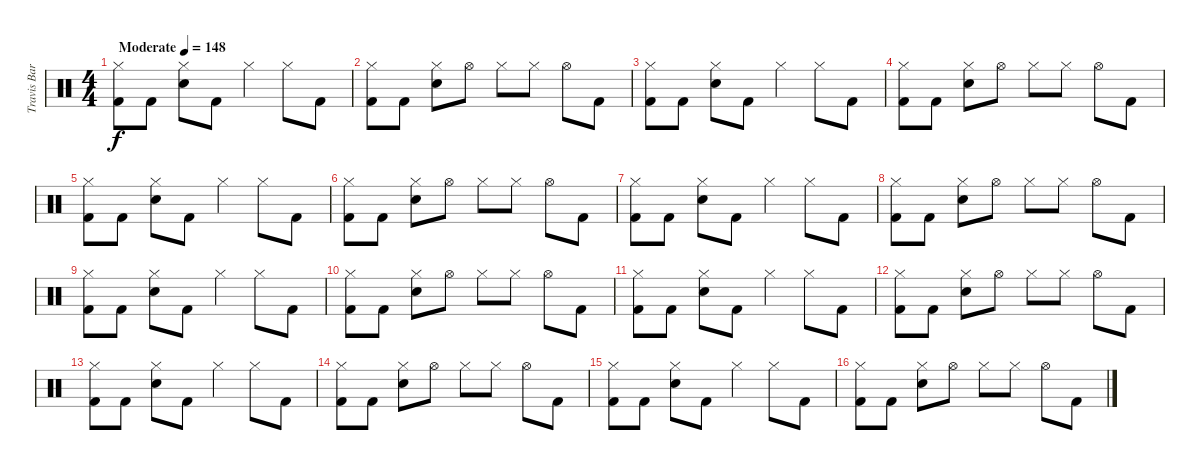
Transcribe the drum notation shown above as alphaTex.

\track ("Travis Barker - Drums" "Travis Bar") {instrument percussion}
\staff {score}
\articulation defaults
\ts (4 4)
\tempo (148 "Moderate")
\clef neutral
\ks c
("Hi-Hat (closed)" "Kick (hit) 2").8{dy f} "Kick (hit) 2".8 ("Hi-Hat (closed)" "Electric Snare (hit)").8 "Kick (hit) 2".8 "Hi-Hat (closed)".4 "Hi-Hat (closed)".8 "Kick (hit) 2".8 |
("Hi-Hat (closed)" "Kick (hit) 2").8 "Kick (hit) 2".8 ("Hi-Hat (closed)" "Electric Snare (hit)").8 "Hi-Hat (open)".8 "Hi-Hat (closed)".8 "Hi-Hat (closed)".8 "Hi-Hat (open)".8 "Kick (hit) 2".8 |
("Hi-Hat (closed)" "Kick (hit) 2").8 "Kick (hit) 2".8 ("Hi-Hat (closed)" "Electric Snare (hit)").8 "Kick (hit) 2".8 "Hi-Hat (closed)".4 "Hi-Hat (closed)".8 "Kick (hit) 2".8 |
("Hi-Hat (closed)" "Kick (hit) 2").8 "Kick (hit) 2".8 ("Hi-Hat (closed)" "Electric Snare (hit)").8 "Hi-Hat (open)".8 "Hi-Hat (closed)".8 "Hi-Hat (closed)".8 "Hi-Hat (open)".8 "Kick (hit) 2".8 |
("Hi-Hat (closed)" "Kick (hit) 2").8 "Kick (hit) 2".8 ("Hi-Hat (closed)" "Electric Snare (hit)").8 "Kick (hit) 2".8 "Hi-Hat (closed)".4 "Hi-Hat (closed)".8 "Kick (hit) 2".8 |
("Hi-Hat (closed)" "Kick (hit) 2").8 "Kick (hit) 2".8 ("Hi-Hat (closed)" "Electric Snare (hit)").8 "Hi-Hat (open)".8 "Hi-Hat (closed)".8 "Hi-Hat (closed)".8 "Hi-Hat (open)".8 "Kick (hit) 2".8 |
("Hi-Hat (closed)" "Kick (hit) 2").8 "Kick (hit) 2".8 ("Hi-Hat (closed)" "Electric Snare (hit)").8 "Kick (hit) 2".8 "Hi-Hat (closed)".4 "Hi-Hat (closed)".8 "Kick (hit) 2".8 |
("Hi-Hat (closed)" "Kick (hit) 2").8 "Kick (hit) 2".8 ("Hi-Hat (closed)" "Electric Snare (hit)").8 "Hi-Hat (open)".8 "Hi-Hat (closed)".8 "Hi-Hat (closed)".8 "Hi-Hat (open)".8 "Kick (hit) 2".8 |
("Hi-Hat (closed)" "Kick (hit) 2").8 "Kick (hit) 2".8 ("Hi-Hat (closed)" "Electric Snare (hit)").8 "Kick (hit) 2".8 "Hi-Hat (closed)".4 "Hi-Hat (closed)".8 "Kick (hit) 2".8 |
("Hi-Hat (closed)" "Kick (hit) 2").8 "Kick (hit) 2".8 ("Hi-Hat (closed)" "Electric Snare (hit)").8 "Hi-Hat (open)".8 "Hi-Hat (closed)".8 "Hi-Hat (closed)".8 "Hi-Hat (open)".8 "Kick (hit) 2".8 |
("Hi-Hat (closed)" "Kick (hit) 2").8 "Kick (hit) 2".8 ("Hi-Hat (closed)" "Electric Snare (hit)").8 "Kick (hit) 2".8 "Hi-Hat (closed)".4 "Hi-Hat (closed)".8 "Kick (hit) 2".8 |
("Hi-Hat (closed)" "Kick (hit) 2").8 "Kick (hit) 2".8 ("Hi-Hat (closed)" "Electric Snare (hit)").8 "Hi-Hat (open)".8 "Hi-Hat (closed)".8 "Hi-Hat (closed)".8 "Hi-Hat (open)".8 "Kick (hit) 2".8 |
("Hi-Hat (closed)" "Kick (hit) 2").8 "Kick (hit) 2".8 ("Hi-Hat (closed)" "Electric Snare (hit)").8 "Kick (hit) 2".8 "Hi-Hat (closed)".4 "Hi-Hat (closed)".8 "Kick (hit) 2".8 |
("Hi-Hat (closed)" "Kick (hit) 2").8 "Kick (hit) 2".8 ("Hi-Hat (closed)" "Electric Snare (hit)").8 "Hi-Hat (open)".8 "Hi-Hat (closed)".8 "Hi-Hat (closed)".8 "Hi-Hat (open)".8 "Kick (hit) 2".8 |
("Hi-Hat (closed)" "Kick (hit) 2").8 "Kick (hit) 2".8 ("Hi-Hat (closed)" "Electric Snare (hit)").8 "Kick (hit) 2".8 "Hi-Hat (closed)".4 "Hi-Hat (closed)".8 "Kick (hit) 2".8 |
("Hi-Hat (closed)" "Kick (hit) 2").8 "Kick (hit) 2".8 ("Hi-Hat (closed)" "Electric Snare (hit)").8 "Hi-Hat (open)".8 "Hi-Hat (closed)".8 "Hi-Hat (closed)".8 "Hi-Hat (open)".8 "Kick (hit) 2".8
